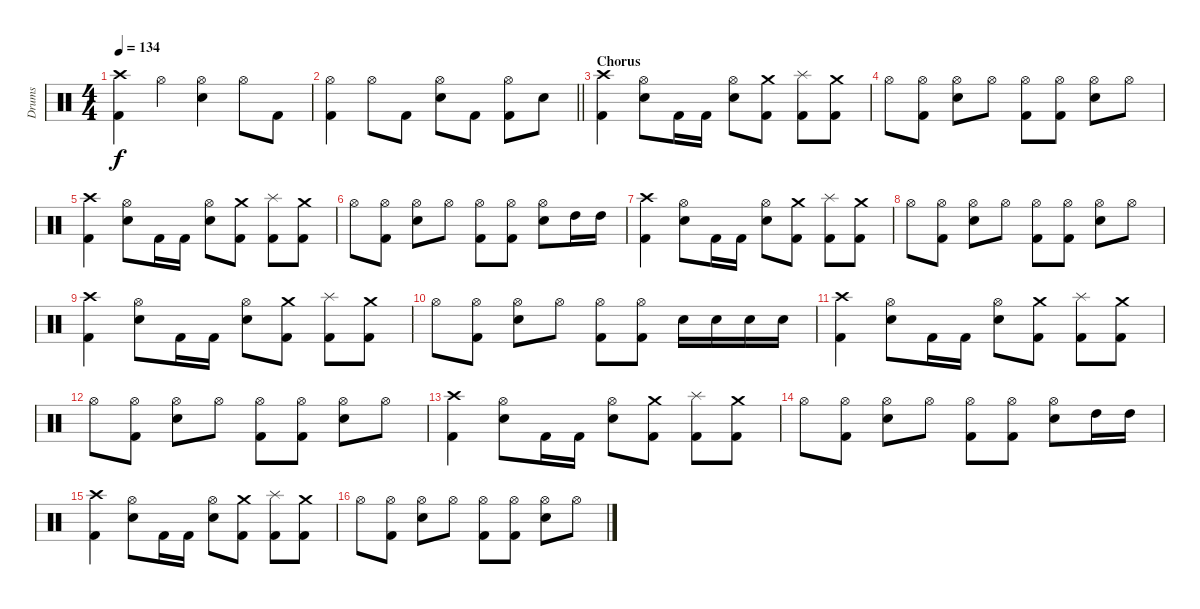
\track ("Drums" "Drums") {instrument percussion}
\staff {score}
\articulation defaults
\ts (4 4)
\tempo 134
\clef neutral
\ks c
("Crash high (hit)" "Kick (hit) 2").4{dy f} "Hi-Hat (open)".4 ("Hi-Hat (open)" "Electric Snare (hit)").4 "Hi-Hat (open)".8 "Kick (hit) 2".8 |
\barLineRight lightlight
("Hi-Hat (open)" "Kick (hit) 2").4 "Hi-Hat (open)".8 "Kick (hit) 2".8 ("Hi-Hat (open)" "Electric Snare (hit)").8 "Kick (hit) 2".8 ("Hi-Hat (open)" "Kick (hit) 2").8 "Electric Snare (hit)".8 |
\section ("" "Chorus")
("Crash high (hit)" "Kick (hit) 2").4 ("Hi-Hat (open)" "Electric Snare (hit)").8 "Kick (hit) 2".16 "Kick (hit) 2".16 ("Hi-Hat (open)" "Electric Snare (hit)").8 ("Crash medium (hit)" "Kick (hit) 2").8 ("Splash (hit)" "Kick (hit) 2").8 ("Crash medium (hit)" "Kick (hit) 2").8 |
"Hi-Hat (open)".8 ("Hi-Hat (open)" "Kick (hit) 2").8 ("Hi-Hat (open)" "Electric Snare (hit)").8 "Hi-Hat (open)".8 ("Hi-Hat (open)" "Kick (hit) 2").8 ("Hi-Hat (open)" "Kick (hit) 2").8 ("Hi-Hat (open)" "Electric Snare (hit)").8 "Hi-Hat (open)".8 |
("Crash high (hit)" "Kick (hit) 2").4 ("Hi-Hat (open)" "Electric Snare (hit)").8 "Kick (hit) 2".16 "Kick (hit) 2".16 ("Hi-Hat (open)" "Electric Snare (hit)").8 ("Crash medium (hit)" "Kick (hit) 2").8 ("Splash (hit)" "Kick (hit) 2").8 ("Crash medium (hit)" "Kick (hit) 2").8 |
"Hi-Hat (open)".8 ("Hi-Hat (open)" "Kick (hit) 2").8 ("Hi-Hat (open)" "Electric Snare (hit)").8 "Hi-Hat (open)".8 ("Hi-Hat (open)" "Kick (hit) 2").8 ("Hi-Hat (open)" "Kick (hit) 2").8 ("Hi-Hat (open)" "Electric Snare (hit)").8 "High Tom (hit)".16 "High Tom (hit)".16 |
("Crash high (hit)" "Kick (hit) 2").4 ("Hi-Hat (open)" "Electric Snare (hit)").8 "Kick (hit) 2".16 "Kick (hit) 2".16 ("Hi-Hat (open)" "Electric Snare (hit)").8 ("Crash medium (hit)" "Kick (hit) 2").8 ("Splash (hit)" "Kick (hit) 2").8 ("Crash medium (hit)" "Kick (hit) 2").8 |
"Hi-Hat (open)".8 ("Hi-Hat (open)" "Kick (hit) 2").8 ("Hi-Hat (open)" "Electric Snare (hit)").8 "Hi-Hat (open)".8 ("Hi-Hat (open)" "Kick (hit) 2").8 ("Hi-Hat (open)" "Kick (hit) 2").8 ("Hi-Hat (open)" "Electric Snare (hit)").8 "Hi-Hat (open)".8 |
("Crash high (hit)" "Kick (hit) 2").4 ("Hi-Hat (open)" "Electric Snare (hit)").8 "Kick (hit) 2".16 "Kick (hit) 2".16 ("Hi-Hat (open)" "Electric Snare (hit)").8 ("Crash medium (hit)" "Kick (hit) 2").8 ("Splash (hit)" "Kick (hit) 2").8 ("Crash medium (hit)" "Kick (hit) 2").8 |
"Hi-Hat (open)".8 ("Hi-Hat (open)" "Kick (hit) 2").8 ("Hi-Hat (open)" "Electric Snare (hit)").8 "Hi-Hat (open)".8 ("Hi-Hat (open)" "Kick (hit) 2").8 ("Hi-Hat (open)" "Kick (hit) 2").8 "Electric Snare (hit)".16 "Electric Snare (hit)".16 "Electric Snare (hit)".16 "Electric Snare (hit)".16 |
("Crash high (hit)" "Kick (hit) 2").4 ("Hi-Hat (open)" "Electric Snare (hit)").8 "Kick (hit) 2".16 "Kick (hit) 2".16 ("Hi-Hat (open)" "Electric Snare (hit)").8 ("Crash medium (hit)" "Kick (hit) 2").8 ("Splash (hit)" "Kick (hit) 2").8 ("Crash medium (hit)" "Kick (hit) 2").8 |
"Hi-Hat (open)".8 ("Hi-Hat (open)" "Kick (hit) 2").8 ("Hi-Hat (open)" "Electric Snare (hit)").8 "Hi-Hat (open)".8 ("Hi-Hat (open)" "Kick (hit) 2").8 ("Hi-Hat (open)" "Kick (hit) 2").8 ("Hi-Hat (open)" "Electric Snare (hit)").8 "Hi-Hat (open)".8 |
("Crash high (hit)" "Kick (hit) 2").4 ("Hi-Hat (open)" "Electric Snare (hit)").8 "Kick (hit) 2".16 "Kick (hit) 2".16 ("Hi-Hat (open)" "Electric Snare (hit)").8 ("Crash medium (hit)" "Kick (hit) 2").8 ("Splash (hit)" "Kick (hit) 2").8 ("Crash medium (hit)" "Kick (hit) 2").8 |
"Hi-Hat (open)".8 ("Hi-Hat (open)" "Kick (hit) 2").8 ("Hi-Hat (open)" "Electric Snare (hit)").8 "Hi-Hat (open)".8 ("Hi-Hat (open)" "Kick (hit) 2").8 ("Hi-Hat (open)" "Kick (hit) 2").8 ("Hi-Hat (open)" "Electric Snare (hit)").8 "High Tom (hit)".16 "High Tom (hit)".16 |
("Crash high (hit)" "Kick (hit) 2").4 ("Hi-Hat (open)" "Electric Snare (hit)").8 "Kick (hit) 2".16 "Kick (hit) 2".16 ("Hi-Hat (open)" "Electric Snare (hit)").8 ("Crash medium (hit)" "Kick (hit) 2").8 ("Splash (hit)" "Kick (hit) 2").8 ("Crash medium (hit)" "Kick (hit) 2").8 |
"Hi-Hat (open)".8 ("Hi-Hat (open)" "Kick (hit) 2").8 ("Hi-Hat (open)" "Electric Snare (hit)").8 "Hi-Hat (open)".8 ("Hi-Hat (open)" "Kick (hit) 2").8 ("Hi-Hat (open)" "Kick (hit) 2").8 ("Hi-Hat (open)" "Electric Snare (hit)").8 "Hi-Hat (open)".8
